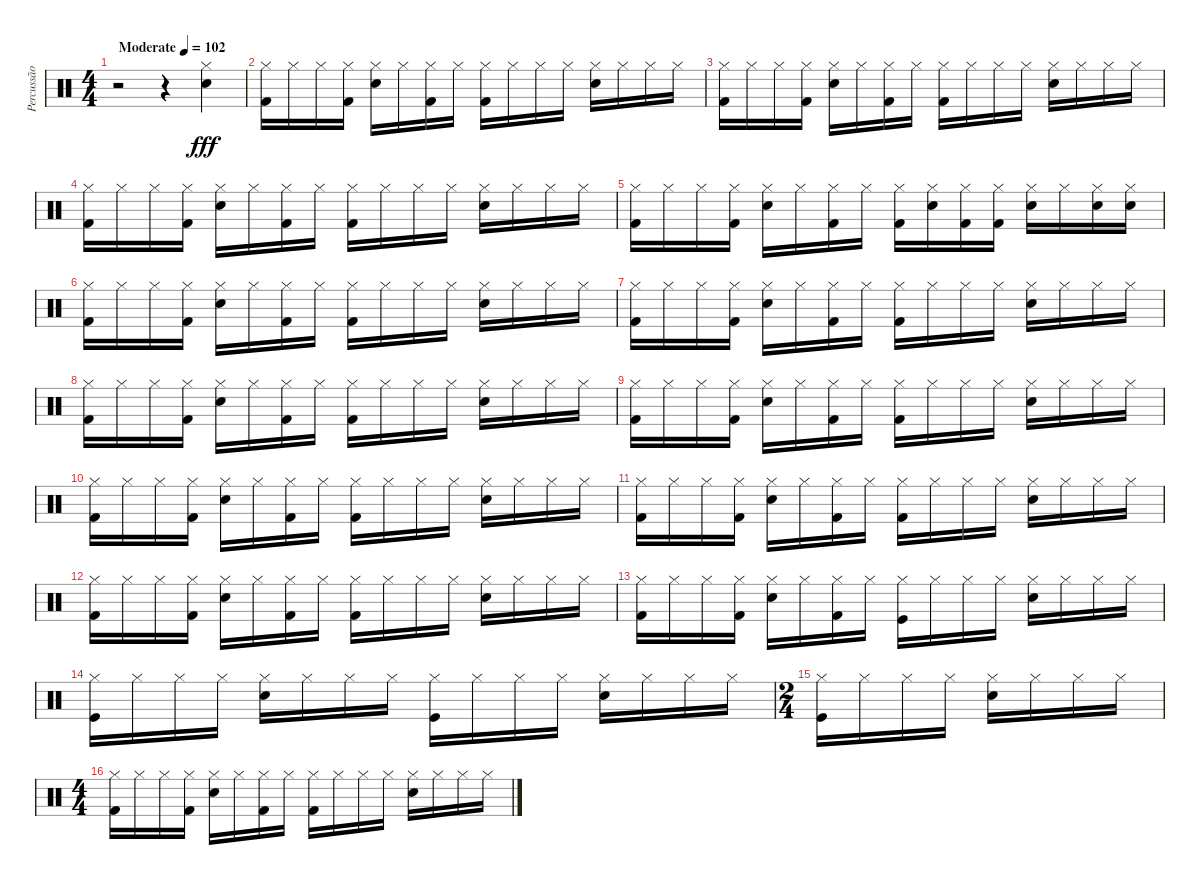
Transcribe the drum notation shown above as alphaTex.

\track ("Percussão" "Percussão") {instrument percussion}
\staff {score}
\articulation defaults
\ts (4 4)
\tempo (102 "Moderate")
\clef neutral
\ks c
r.2{dy fff} r.4 ("Hi-Hat (closed)" "Snare (hit) 2").4 |
("Hi-Hat (closed)" "Kick (hit) 2").16 "Hi-Hat (closed)".16 "Hi-Hat (closed)".16 ("Hi-Hat (closed)" "Kick (hit) 2").16 ("Hi-Hat (closed)" "Snare (hit) 2").16 "Hi-Hat (closed)".16 ("Hi-Hat (closed)" "Kick (hit) 2").16 "Hi-Hat (closed)".16 ("Hi-Hat (closed)" "Kick (hit) 2").16 "Hi-Hat (closed)".16 "Hi-Hat (closed)".16 "Hi-Hat (closed)".16 ("Hi-Hat (closed)" "Snare (hit) 2").16 "Hi-Hat (closed)".16 "Hi-Hat (closed)".16 "Hi-Hat (closed)".16 |
("Hi-Hat (closed)" "Kick (hit) 2").16 "Hi-Hat (closed)".16 "Hi-Hat (closed)".16 ("Hi-Hat (closed)" "Kick (hit) 2").16 ("Hi-Hat (closed)" "Snare (hit) 2").16 "Hi-Hat (closed)".16 ("Hi-Hat (closed)" "Kick (hit) 2").16 "Hi-Hat (closed)".16 ("Hi-Hat (closed)" "Kick (hit) 2").16 "Hi-Hat (closed)".16 "Hi-Hat (closed)".16 "Hi-Hat (closed)".16 ("Hi-Hat (closed)" "Snare (hit) 2").16 "Hi-Hat (closed)".16 "Hi-Hat (closed)".16 "Hi-Hat (closed)".16 |
("Hi-Hat (closed)" "Kick (hit) 2").16 "Hi-Hat (closed)".16 "Hi-Hat (closed)".16 ("Hi-Hat (closed)" "Kick (hit) 2").16 ("Hi-Hat (closed)" "Snare (hit) 2").16 "Hi-Hat (closed)".16 ("Hi-Hat (closed)" "Kick (hit) 2").16 "Hi-Hat (closed)".16 ("Hi-Hat (closed)" "Kick (hit) 2").16 "Hi-Hat (closed)".16 "Hi-Hat (closed)".16 "Hi-Hat (closed)".16 ("Hi-Hat (closed)" "Snare (hit) 2").16 "Hi-Hat (closed)".16 "Hi-Hat (closed)".16 "Hi-Hat (closed)".16 |
("Hi-Hat (closed)" "Kick (hit) 2").16 "Hi-Hat (closed)".16 "Hi-Hat (closed)".16 ("Hi-Hat (closed)" "Kick (hit) 2").16 ("Hi-Hat (closed)" "Snare (hit) 2").16 "Hi-Hat (closed)".16 ("Hi-Hat (closed)" "Kick (hit) 2").16 "Hi-Hat (closed)".16 ("Hi-Hat (closed)" "Kick (hit) 2").16 ("Hi-Hat (closed)" "Snare (hit) 2").16 ("Hi-Hat (closed)" "Kick (hit) 2").16 ("Hi-Hat (closed)" "Kick (hit) 2").16 ("Hi-Hat (closed)" "Snare (hit) 2").16 "Hi-Hat (closed)".16 ("Hi-Hat (closed)" "Snare (hit) 2").16 ("Hi-Hat (closed)" "Snare (hit) 2").16 |
("Hi-Hat (closed)" "Kick (hit) 2").16 "Hi-Hat (closed)".16 "Hi-Hat (closed)".16 ("Hi-Hat (closed)" "Kick (hit) 2").16 ("Hi-Hat (closed)" "Snare (hit) 2").16 "Hi-Hat (closed)".16 ("Hi-Hat (closed)" "Kick (hit) 2").16 "Hi-Hat (closed)".16 ("Hi-Hat (closed)" "Kick (hit) 2").16 "Hi-Hat (closed)".16 "Hi-Hat (closed)".16 "Hi-Hat (closed)".16 ("Hi-Hat (closed)" "Snare (hit) 2").16 "Hi-Hat (closed)".16 "Hi-Hat (closed)".16 "Hi-Hat (closed)".16 |
("Hi-Hat (closed)" "Kick (hit) 2").16 "Hi-Hat (closed)".16 "Hi-Hat (closed)".16 ("Hi-Hat (closed)" "Kick (hit) 2").16 ("Hi-Hat (closed)" "Snare (hit) 2").16 "Hi-Hat (closed)".16 ("Hi-Hat (closed)" "Kick (hit) 2").16 "Hi-Hat (closed)".16 ("Hi-Hat (closed)" "Kick (hit) 2").16 "Hi-Hat (closed)".16 "Hi-Hat (closed)".16 "Hi-Hat (closed)".16 ("Hi-Hat (closed)" "Snare (hit) 2").16 "Hi-Hat (closed)".16 "Hi-Hat (closed)".16 "Hi-Hat (closed)".16 |
("Hi-Hat (closed)" "Kick (hit) 2").16 "Hi-Hat (closed)".16 "Hi-Hat (closed)".16 ("Hi-Hat (closed)" "Kick (hit) 2").16 ("Hi-Hat (closed)" "Snare (hit) 2").16 "Hi-Hat (closed)".16 ("Hi-Hat (closed)" "Kick (hit) 2").16 "Hi-Hat (closed)".16 ("Hi-Hat (closed)" "Kick (hit) 2").16 "Hi-Hat (closed)".16 "Hi-Hat (closed)".16 "Hi-Hat (closed)".16 ("Hi-Hat (closed)" "Snare (hit) 2").16 "Hi-Hat (closed)".16 "Hi-Hat (closed)".16 "Hi-Hat (closed)".16 |
("Hi-Hat (closed)" "Kick (hit) 2").16 "Hi-Hat (closed)".16 "Hi-Hat (closed)".16 ("Hi-Hat (closed)" "Kick (hit) 2").16 ("Hi-Hat (closed)" "Snare (hit) 2").16 "Hi-Hat (closed)".16 ("Hi-Hat (closed)" "Kick (hit) 2").16 "Hi-Hat (closed)".16 ("Hi-Hat (closed)" "Kick (hit) 2").16 "Hi-Hat (closed)".16 "Hi-Hat (closed)".16 "Hi-Hat (closed)".16 ("Hi-Hat (closed)" "Snare (hit) 2").16 "Hi-Hat (closed)".16 "Hi-Hat (closed)".16 "Hi-Hat (closed)".16 |
("Hi-Hat (closed)" "Kick (hit) 2").16 "Hi-Hat (closed)".16 "Hi-Hat (closed)".16 ("Hi-Hat (closed)" "Kick (hit) 2").16 ("Hi-Hat (closed)" "Snare (hit) 2").16 "Hi-Hat (closed)".16 ("Hi-Hat (closed)" "Kick (hit) 2").16 "Hi-Hat (closed)".16 ("Hi-Hat (closed)" "Kick (hit) 2").16 "Hi-Hat (closed)".16 "Hi-Hat (closed)".16 "Hi-Hat (closed)".16 ("Hi-Hat (closed)" "Snare (hit) 2").16 "Hi-Hat (closed)".16 "Hi-Hat (closed)".16 "Hi-Hat (closed)".16 |
("Hi-Hat (closed)" "Kick (hit) 2").16 "Hi-Hat (closed)".16 "Hi-Hat (closed)".16 ("Hi-Hat (closed)" "Kick (hit) 2").16 ("Hi-Hat (closed)" "Snare (hit) 2").16 "Hi-Hat (closed)".16 ("Hi-Hat (closed)" "Kick (hit) 2").16 "Hi-Hat (closed)".16 ("Hi-Hat (closed)" "Kick (hit) 2").16 "Hi-Hat (closed)".16 "Hi-Hat (closed)".16 "Hi-Hat (closed)".16 ("Hi-Hat (closed)" "Snare (hit) 2").16 "Hi-Hat (closed)".16 "Hi-Hat (closed)".16 "Hi-Hat (closed)".16 |
("Hi-Hat (closed)" "Kick (hit) 2").16 "Hi-Hat (closed)".16 "Hi-Hat (closed)".16 ("Hi-Hat (closed)" "Kick (hit) 2").16 ("Hi-Hat (closed)" "Snare (hit) 2").16 "Hi-Hat (closed)".16 ("Hi-Hat (closed)" "Kick (hit) 2").16 "Hi-Hat (closed)".16 ("Hi-Hat (closed)" "Kick (hit) 2").16 "Hi-Hat (closed)".16 "Hi-Hat (closed)".16 "Hi-Hat (closed)".16 ("Hi-Hat (closed)" "Snare (hit) 2").16 "Hi-Hat (closed)".16 "Hi-Hat (closed)".16 "Hi-Hat (closed)".16 |
("Hi-Hat (closed)" "Kick (hit) 2").16 "Hi-Hat (closed)".16 "Hi-Hat (closed)".16 ("Hi-Hat (closed)" "Kick (hit) 2").16 ("Hi-Hat (closed)" "Snare (hit) 2").16 "Hi-Hat (closed)".16 ("Hi-Hat (closed)" "Kick (hit) 2").16 "Hi-Hat (closed)".16 ("Hi-Hat (closed)" "Kick (hit)").16 "Hi-Hat (closed)".16 "Hi-Hat (closed)".16 "Hi-Hat (closed)".16 ("Hi-Hat (closed)" "Snare (hit) 2").16 "Hi-Hat (closed)".16 "Hi-Hat (closed)".16 "Hi-Hat (closed)".16 |
("Hi-Hat (closed)" "Kick (hit)").16 "Hi-Hat (closed)".16 "Hi-Hat (closed)".16 "Hi-Hat (closed)".16 ("Hi-Hat (closed)" "Snare (hit) 2").16 "Hi-Hat (closed)".16 "Hi-Hat (closed)".16 "Hi-Hat (closed)".16 ("Hi-Hat (closed)" "Kick (hit)").16 "Hi-Hat (closed)".16 "Hi-Hat (closed)".16 "Hi-Hat (closed)".16 ("Hi-Hat (closed)" "Snare (hit) 2").16 "Hi-Hat (closed)".16 "Hi-Hat (closed)".16 "Hi-Hat (closed)".16 |
\ts (2 4)
("Hi-Hat (closed)" "Kick (hit)").16 "Hi-Hat (closed)".16 "Hi-Hat (closed)".16 "Hi-Hat (closed)".16 ("Hi-Hat (closed)" "Snare (hit) 2").16 "Hi-Hat (closed)".16 "Hi-Hat (closed)".16 "Hi-Hat (closed)".16 |
\ts (4 4)
("Hi-Hat (closed)" "Kick (hit) 2").16 "Hi-Hat (closed)".16 "Hi-Hat (closed)".16 ("Hi-Hat (closed)" "Kick (hit) 2").16 ("Hi-Hat (closed)" "Snare (hit) 2").16 "Hi-Hat (closed)".16 ("Hi-Hat (closed)" "Kick (hit) 2").16 "Hi-Hat (closed)".16 ("Hi-Hat (closed)" "Kick (hit) 2").16 "Hi-Hat (closed)".16 "Hi-Hat (closed)".16 "Hi-Hat (closed)".16 ("Hi-Hat (closed)" "Snare (hit) 2").16 "Hi-Hat (closed)".16 "Hi-Hat (closed)".16 "Hi-Hat (closed)".16
